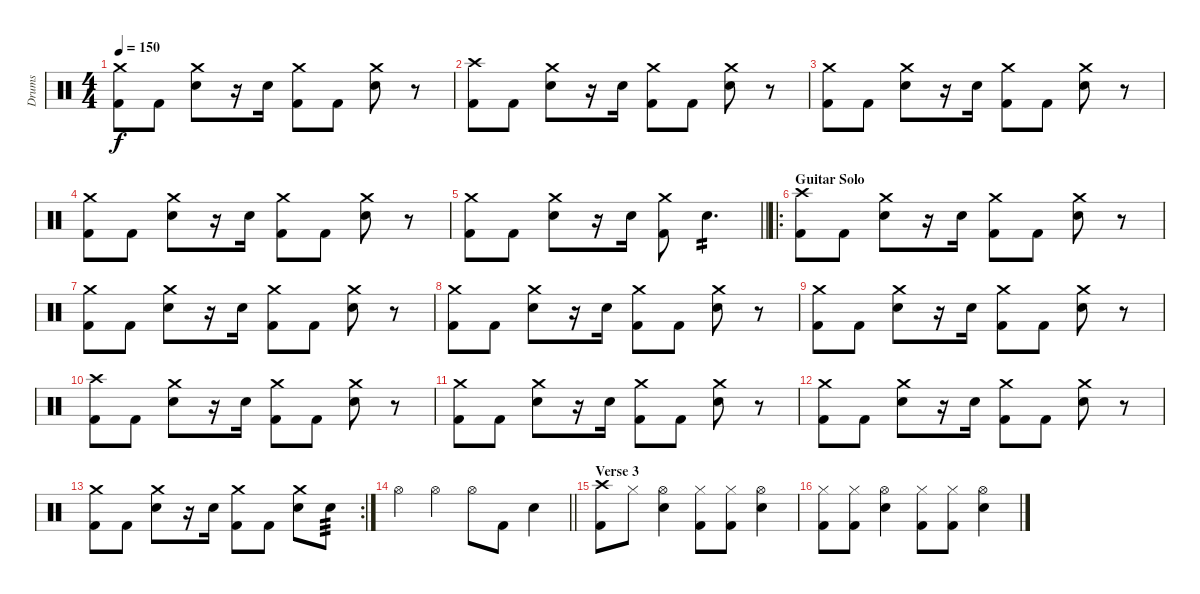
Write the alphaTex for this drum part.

\track ("Drums" "Drums") {instrument percussion}
\staff {score}
\articulation defaults
\ts (4 4)
\tempo 150
\clef neutral
\ks c
("Crash medium (hit)" "Kick (hit) 2").8{dy f} "Kick (hit) 2".8 ("Crash medium (hit)" "Electric Snare (hit)").8 r.16 "Electric Snare (hit)".16 ("Crash medium (hit)" "Kick (hit) 2").8 "Kick (hit) 2".8 ("Crash medium (hit)" "Electric Snare (hit)").8 r.8 |
("Crash high (hit)" "Kick (hit) 2").8 "Kick (hit) 2".8 ("Crash medium (hit)" "Electric Snare (hit)").8 r.16 "Electric Snare (hit)".16 ("Crash medium (hit)" "Kick (hit) 2").8 "Kick (hit) 2".8 ("Crash medium (hit)" "Electric Snare (hit)").8 r.8 |
("Crash medium (hit)" "Kick (hit) 2").8 "Kick (hit) 2".8 ("Crash medium (hit)" "Electric Snare (hit)").8 r.16 "Electric Snare (hit)".16 ("Crash medium (hit)" "Kick (hit) 2").8 "Kick (hit) 2".8 ("Crash medium (hit)" "Electric Snare (hit)").8 r.8 |
("Crash medium (hit)" "Kick (hit) 2").8 "Kick (hit) 2".8 ("Crash medium (hit)" "Electric Snare (hit)").8 r.16 "Electric Snare (hit)".16 ("Crash medium (hit)" "Kick (hit) 2").8 "Kick (hit) 2".8 ("Crash medium (hit)" "Electric Snare (hit)").8 r.8 |
\barLineRight lightlight
("Crash medium (hit)" "Kick (hit) 2").8 "Kick (hit) 2".8 ("Crash medium (hit)" "Electric Snare (hit)").8 r.16 "Electric Snare (hit)".16 ("Crash medium (hit)" "Kick (hit) 2").8 "Electric Snare (hit)".4{d tp 2} |
\ro
\section ("" "Guitar Solo")
("Crash high (hit)" "Kick (hit) 2").8 "Kick (hit) 2".8 ("Crash medium (hit)" "Electric Snare (hit)").8 r.16 "Electric Snare (hit)".16 ("Crash medium (hit)" "Kick (hit) 2").8 "Kick (hit) 2".8 ("Crash medium (hit)" "Electric Snare (hit)").8 r.8 |
("Crash medium (hit)" "Kick (hit) 2").8 "Kick (hit) 2".8 ("Crash medium (hit)" "Electric Snare (hit)").8 r.16 "Electric Snare (hit)".16 ("Crash medium (hit)" "Kick (hit) 2").8 "Kick (hit) 2".8 ("Crash medium (hit)" "Electric Snare (hit)").8 r.8 |
("Crash medium (hit)" "Kick (hit) 2").8 "Kick (hit) 2".8 ("Crash medium (hit)" "Electric Snare (hit)").8 r.16 "Electric Snare (hit)".16 ("Crash medium (hit)" "Kick (hit) 2").8 "Kick (hit) 2".8 ("Crash medium (hit)" "Electric Snare (hit)").8 r.8 |
("Crash medium (hit)" "Kick (hit) 2").8 "Kick (hit) 2".8 ("Crash medium (hit)" "Electric Snare (hit)").8 r.16 "Electric Snare (hit)".16 ("Crash medium (hit)" "Kick (hit) 2").8 "Kick (hit) 2".8 ("Crash medium (hit)" "Electric Snare (hit)").8 r.8 |
("Crash high (hit)" "Kick (hit) 2").8 "Kick (hit) 2".8 ("Crash medium (hit)" "Electric Snare (hit)").8 r.16 "Electric Snare (hit)".16 ("Crash medium (hit)" "Kick (hit) 2").8 "Kick (hit) 2".8 ("Crash medium (hit)" "Electric Snare (hit)").8 r.8 |
("Crash medium (hit)" "Kick (hit) 2").8 "Kick (hit) 2".8 ("Crash medium (hit)" "Electric Snare (hit)").8 r.16 "Electric Snare (hit)".16 ("Crash medium (hit)" "Kick (hit) 2").8 "Kick (hit) 2".8 ("Crash medium (hit)" "Electric Snare (hit)").8 r.8 |
("Crash medium (hit)" "Kick (hit) 2").8 "Kick (hit) 2".8 ("Crash medium (hit)" "Electric Snare (hit)").8 r.16 "Electric Snare (hit)".16 ("Crash medium (hit)" "Kick (hit) 2").8 "Kick (hit) 2".8 ("Crash medium (hit)" "Electric Snare (hit)").8 r.8 |
\rc 2
("Crash medium (hit)" "Kick (hit) 2").8 "Kick (hit) 2".8 ("Crash medium (hit)" "Electric Snare (hit)").8 r.16 "Electric Snare (hit)".16 ("Crash medium (hit)" "Kick (hit) 2").8 "Kick (hit) 2".8 ("Crash medium (hit)" "Electric Snare (hit)").8 "Electric Snare (hit)".8{tp 3} |
\barLineRight lightlight "Hi-Hat (open)".4 "Hi-Hat (open)".4 "Hi-Hat (open)".8 "Kick (hit) 2".8 "Electric Snare (hit)".4
|
\section ("" "Verse 3")
("Crash high (hit)" "Kick (hit) 2").8 "Hi-Hat (closed)".8 ("Hi-Hat (open)" "Electric Snare (hit)").4 ("Hi-Hat (closed)" "Kick (hit) 2").8 ("Hi-Hat (closed)" "Kick (hit) 2").8 ("Hi-Hat (open)" "Electric Snare (hit)").4 |
("Hi-Hat (closed)" "Kick (hit) 2").8 ("Hi-Hat (closed)" "Kick (hit) 2").8 ("Hi-Hat (open)" "Electric Snare (hit)").4 ("Hi-Hat (closed)" "Kick (hit) 2").8 ("Hi-Hat (closed)" "Kick (hit) 2").8 ("Hi-Hat (open)" "Electric Snare (hit)").4
